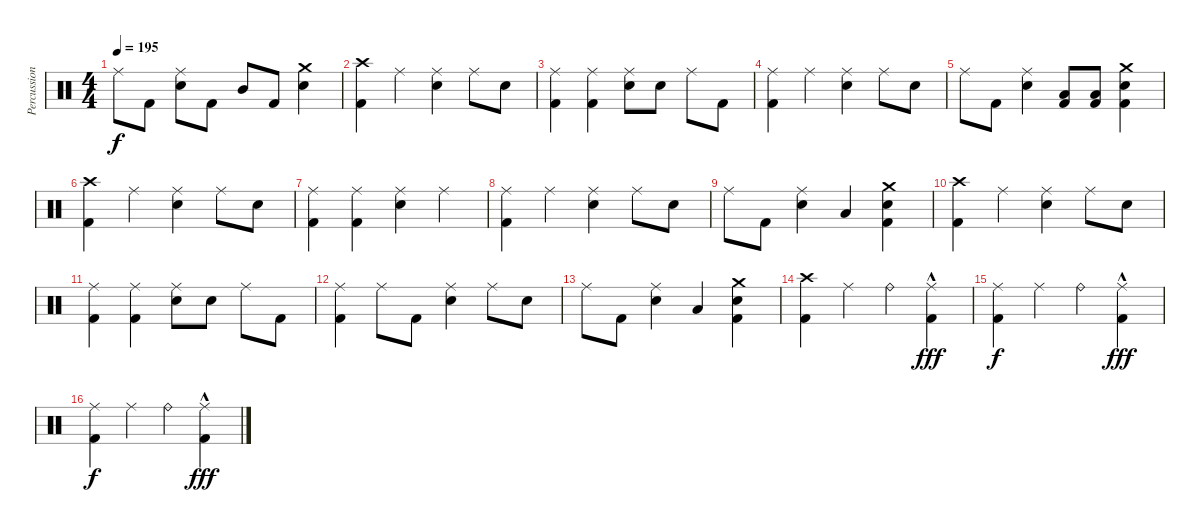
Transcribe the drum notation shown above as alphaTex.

\track ("Percussion" "Percussion") {instrument percussion}
\staff {score}
\articulation defaults
\ts (4 4)
\tempo 195
\clef neutral
\ks c "Ride (middle)".8{dy f} "Kick (hit) 2".8
("Ride (middle)" "Snare (hit) 2").8 "Kick (hit) 2".8 "Mid Tom (hit)".8 "Kick (hit) 2".8 ("Crash medium (hit)" "Snare (hit) 2").4 |
("Crash high (hit)" "Kick (hit) 2").4 "Ride (middle)".4 ("Ride (middle)" "Snare (hit) 2").4 "Ride (middle)".8 "Snare (hit) 2".8 |
("Ride (middle)" "Kick (hit) 2").4 ("Ride (middle)" "Kick (hit) 2").4 ("Ride (middle)" "Snare (hit) 2").8 "Snare (hit) 2".8 "Ride (middle)".8 "Kick (hit) 2".8 |
("Ride (middle)" "Kick (hit) 2").4 "Ride (middle)".4 ("Ride (middle)" "Snare (hit) 2").4 "Ride (middle)".8 "Snare (hit) 2".8 |
"Ride (middle)".8 "Kick (hit) 2".8 ("Ride (middle)" "Snare (hit) 2").4 ("Low Tom (hit)" "Kick (hit) 2").8 ("Low Tom (hit)" "Kick (hit) 2").8 ("Crash medium (hit)" "Snare (hit) 2" "Kick (hit) 2").4 |
("Crash high (hit)" "Kick (hit) 2").4 "Ride (middle)".4 ("Ride (middle)" "Snare (hit) 2").4 "Ride (middle)".8 "Snare (hit) 2".8 |
("Ride (middle)" "Kick (hit) 2").4 ("Ride (middle)" "Kick (hit) 2").4 ("Ride (middle)" "Snare (hit) 2").4 "Ride (middle)".4 |
("Ride (middle)" "Kick (hit) 2").4 "Ride (middle)".4 ("Ride (middle)" "Snare (hit) 2").4 "Ride (middle)".8 "Snare (hit) 2".8 |
"Ride (middle)".8 "Kick (hit) 2".8 ("Ride (middle)" "Snare (hit) 2").4 "Low Tom (hit)".4 ("Crash medium (hit)" "Snare (hit) 2" "Kick (hit) 2").4 |
("Crash high (hit)" "Kick (hit) 2").4 "Ride (middle)".4 ("Ride (middle)" "Snare (hit) 2").4 "Ride (middle)".8 "Snare (hit) 2".8 |
("Ride (middle)" "Kick (hit) 2").4 ("Ride (middle)" "Kick (hit) 2").4 ("Ride (middle)" "Snare (hit) 2").8 "Snare (hit) 2".8 "Ride (middle)".8 "Kick (hit) 2".8 |
("Ride (middle)" "Kick (hit) 2").4 "Ride (middle)".8 "Kick (hit) 2".8 ("Ride (middle)" "Snare (hit) 2").4 "Ride (middle)".8 "Snare (hit) 2".8 |
"Ride (middle)".8 "Kick (hit) 2".8 ("Ride (middle)" "Snare (hit) 2").4 "Low Tom (hit)".4 ("Crash medium (hit)" "Snare (hit) 2" "Kick (hit) 2").4 |
("Crash high (hit)" "Kick (hit) 2").4 "Ride (middle)".4 "Ride (bell)".4 ("Ride (middle)" "Kick (hit) 2"{hac}).4{dy fff} |
("Ride (middle)" "Kick (hit) 2").4{dy f} "Ride (middle)".4 "Ride (bell)".4 ("Ride (middle)" "Kick (hit) 2"{hac}).4{dy fff} |
("Ride (middle)" "Kick (hit) 2").4{dy f} "Ride (middle)".4 "Ride (bell)".4 ("Ride (middle)" "Kick (hit) 2"{hac}).4{dy fff}
